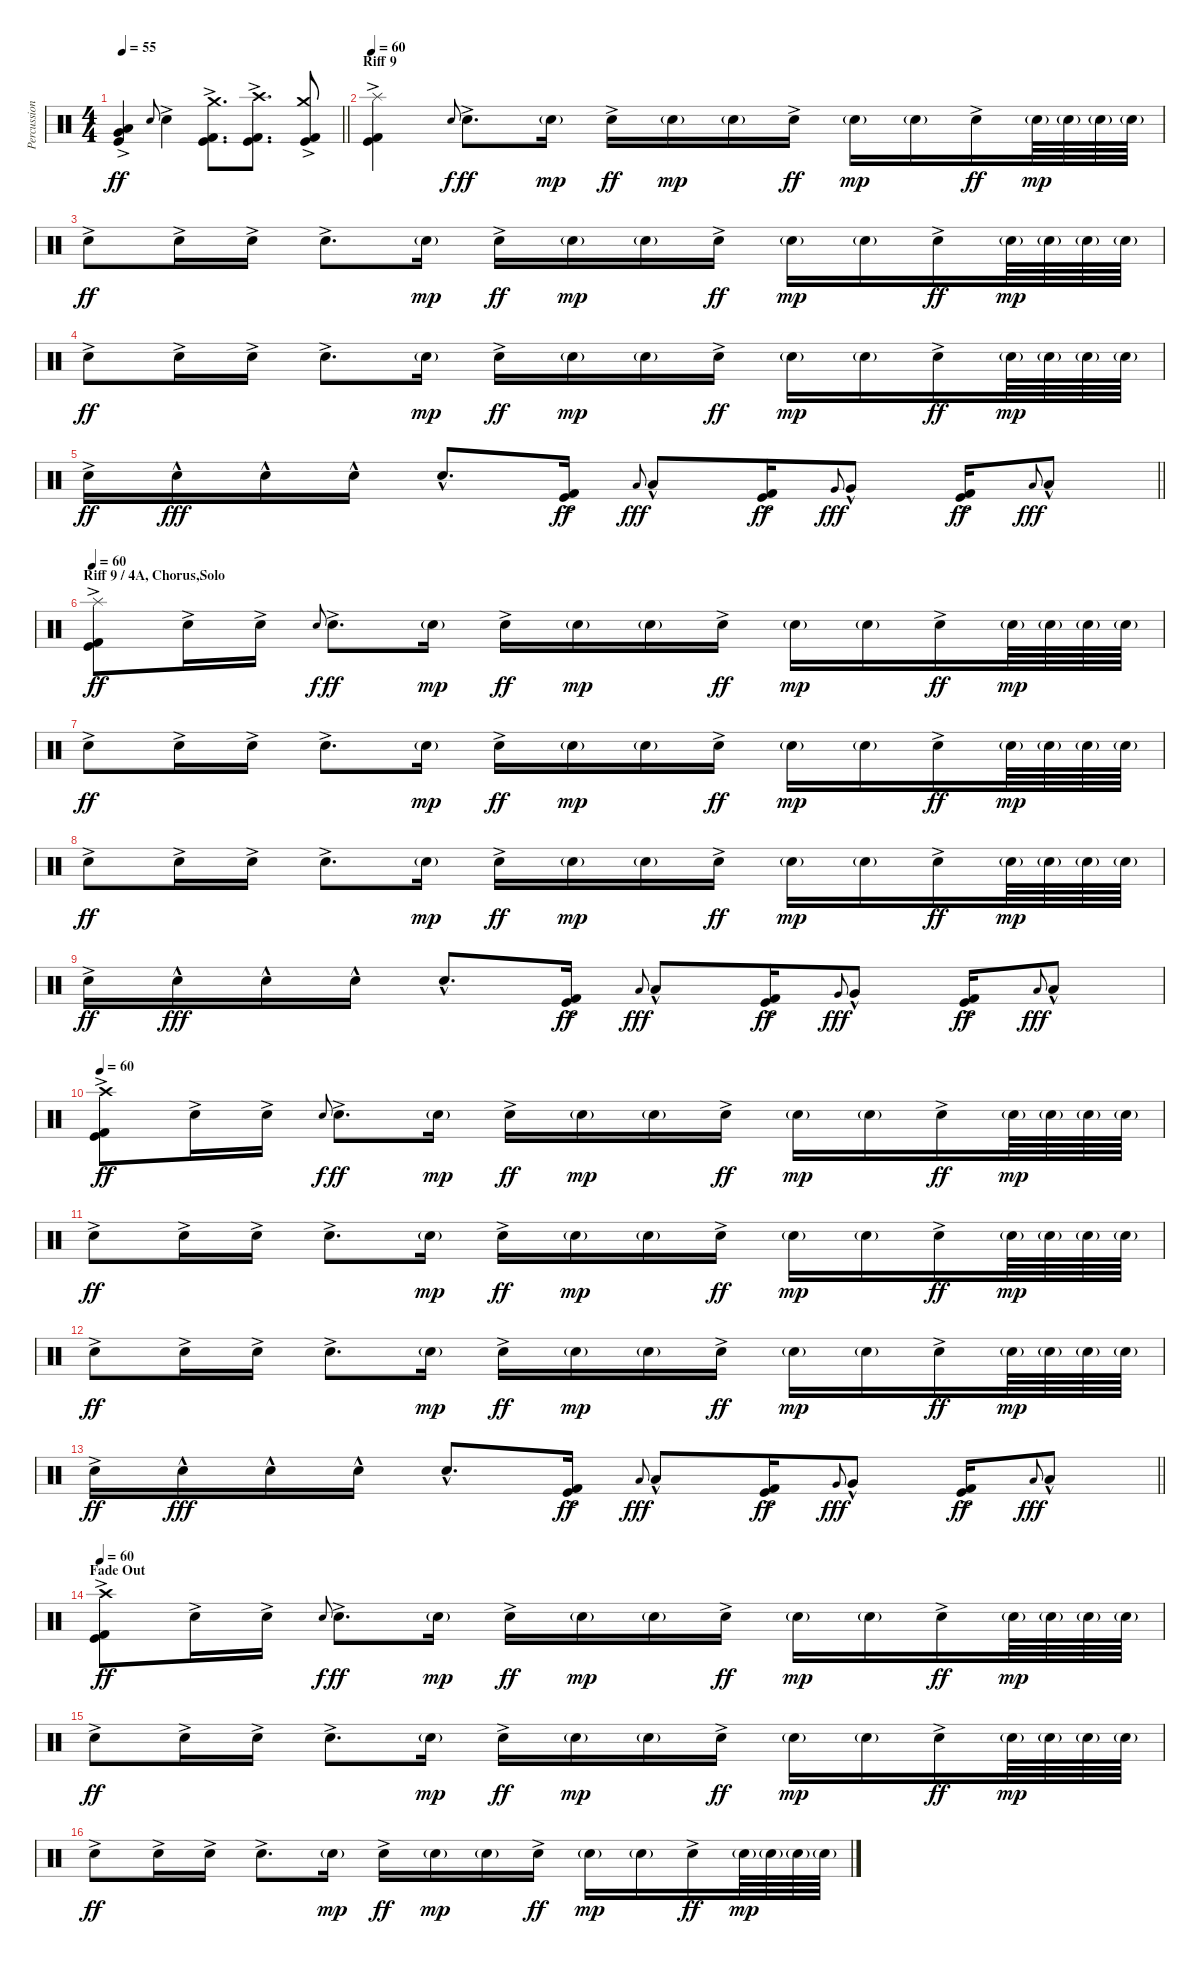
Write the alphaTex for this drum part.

\track ("Percussion" "Percussion") {instrument percussion}
\staff {score}
\articulation defaults
\ts (4 4)
\tempo 55
\clef neutral
\barLineRight lightlight
\ks c
("Low Floor Tom (hit)"{ac} "Very Low Tom (hit)"{ac} "Kick (hit)"{ac}).4{dy ff} "Snare (hit) 2".8{gr onbeat} "Snare (hit) 2"{ac}.4 ("Crash medium (hit)" "Kick (hit)"{ac} "Kick (hit) 2"{ac}).8{d} ("Crash high (hit)" "Kick (hit)"{ac} "Kick (hit) 2"{ac}).8{d} ("Crash medium (hit)" "Kick (hit)"{ac} "Kick (hit) 2"{ac}).8 |
\section ("" "Riff 9")
\tempo 60
("Kick (hit)"{ac} "Kick (hit) 2"{ac} "Splash (hit)").4 "Snare (hit) 2".8{gr onbeat dy f} "Snare (hit) 2"{ac}.8{d dy ff} "Snare (hit) 2"{g}.16{dy mp} "Snare (hit) 2"{ac}.16{dy ff} "Snare (hit) 2"{g}.16{dy mp} "Snare (hit) 2"{g}.16 "Snare (hit) 2"{ac}.16{dy ff} "Snare (hit) 2"{g}.16{dy mp} "Snare (hit) 2"{g}.16 "Snare (hit) 2"{ac}.16{dy ff} "Snare (hit) 2"{g}.64{dy mp} "Snare (hit) 2"{g}.64 "Snare (hit) 2"{g}.64 "Snare (hit) 2"{g}.64 |
"Snare (hit) 2"{ac}.8{dy ff} "Snare (hit) 2"{ac}.16 "Snare (hit) 2"{ac}.16 "Snare (hit) 2"{ac}.8{d} "Snare (hit) 2"{g}.16{dy mp} "Snare (hit) 2"{ac}.16{dy ff} "Snare (hit) 2"{g}.16{dy mp} "Snare (hit) 2"{g}.16 "Snare (hit) 2"{ac}.16{dy ff} "Snare (hit) 2"{g}.16{dy mp} "Snare (hit) 2"{g}.16 "Snare (hit) 2"{ac}.16{dy ff} "Snare (hit) 2"{g}.64{dy mp} "Snare (hit) 2"{g}.64 "Snare (hit) 2"{g}.64 "Snare (hit) 2"{g}.64 |
"Snare (hit) 2"{ac}.8{dy ff} "Snare (hit) 2"{ac}.16 "Snare (hit) 2"{ac}.16 "Snare (hit) 2"{ac}.8{d} "Snare (hit) 2"{g}.16{dy mp} "Snare (hit) 2"{ac}.16{dy ff} "Snare (hit) 2"{g}.16{dy mp} "Snare (hit) 2"{g}.16 "Snare (hit) 2"{ac}.16{dy ff} "Snare (hit) 2"{g}.16{dy mp} "Snare (hit) 2"{g}.16 "Snare (hit) 2"{ac}.16{dy ff} "Snare (hit) 2"{g}.64{dy mp} "Snare (hit) 2"{g}.64 "Snare (hit) 2"{g}.64 "Snare (hit) 2"{g}.64 |
\barLineRight lightlight "Snare (hit) 2"{ac}.16{dy ff} "Snare (hit) 2"{hac}.16{dy fff} "Snare (hit) 2"{hac}.16 "Snare (hit) 2"{hac}.16 "Snare (hit) 2"{hac}.8{d}
("Kick (hit)"{ac} "Kick (hit) 2"{ac}).16{dy ff} "Low Tom (hit)".8{gr onbeat dy fff} "Low Tom (hit)"{hac}.8 ("Kick (hit)"{ac} "Kick (hit) 2"{ac}).16{dy ff} "Very Low Tom (hit)".8{gr onbeat dy fff} "Very Low Tom (hit)"{hac}.8 ("Kick (hit)"{ac} "Kick (hit) 2"{ac}).16{dy ff} "Low Floor Tom (hit)".8{gr onbeat dy fff} "Low Floor Tom (hit)"{hac}.8 |
\section ("" "Riff 9 / 4A, Chorus,Solo")
\tempo 60
("Kick (hit)"{ac} "Kick (hit) 2"{ac} "Splash (hit)").8{dy ff} "Snare (hit) 2"{ac}.16 "Snare (hit) 2"{ac}.16 "Snare (hit) 2".8{gr onbeat dy f} "Snare (hit) 2"{ac}.8{d dy ff} "Snare (hit) 2"{g}.16{dy mp} "Snare (hit) 2"{ac}.16{dy ff} "Snare (hit) 2"{g}.16{dy mp} "Snare (hit) 2"{g}.16 "Snare (hit) 2"{ac}.16{dy ff} "Snare (hit) 2"{g}.16{dy mp} "Snare (hit) 2"{g}.16 "Snare (hit) 2"{ac}.16{dy ff} "Snare (hit) 2"{g}.64{dy mp} "Snare (hit) 2"{g}.64 "Snare (hit) 2"{g}.64 "Snare (hit) 2"{g}.64 |
"Snare (hit) 2"{ac}.8{dy ff} "Snare (hit) 2"{ac}.16 "Snare (hit) 2"{ac}.16 "Snare (hit) 2"{ac}.8{d} "Snare (hit) 2"{g}.16{dy mp} "Snare (hit) 2"{ac}.16{dy ff} "Snare (hit) 2"{g}.16{dy mp} "Snare (hit) 2"{g}.16 "Snare (hit) 2"{ac}.16{dy ff} "Snare (hit) 2"{g}.16{dy mp} "Snare (hit) 2"{g}.16 "Snare (hit) 2"{ac}.16{dy ff} "Snare (hit) 2"{g}.64{dy mp} "Snare (hit) 2"{g}.64 "Snare (hit) 2"{g}.64 "Snare (hit) 2"{g}.64 |
"Snare (hit) 2"{ac}.8{dy ff} "Snare (hit) 2"{ac}.16 "Snare (hit) 2"{ac}.16 "Snare (hit) 2"{ac}.8{d} "Snare (hit) 2"{g}.16{dy mp} "Snare (hit) 2"{ac}.16{dy ff} "Snare (hit) 2"{g}.16{dy mp} "Snare (hit) 2"{g}.16 "Snare (hit) 2"{ac}.16{dy ff} "Snare (hit) 2"{g}.16{dy mp} "Snare (hit) 2"{g}.16 "Snare (hit) 2"{ac}.16{dy ff} "Snare (hit) 2"{g}.64{dy mp} "Snare (hit) 2"{g}.64 "Snare (hit) 2"{g}.64 "Snare (hit) 2"{g}.64 |
"Snare (hit) 2"{ac}.16{dy ff} "Snare (hit) 2"{hac}.16{dy fff} "Snare (hit) 2"{hac}.16 "Snare (hit) 2"{hac}.16 "Snare (hit) 2"{hac}.8{d} ("Kick (hit)"{ac} "Kick (hit) 2"{ac}).16{dy ff} "Low Tom (hit)".8{gr onbeat dy fff} "Low Tom (hit)"{hac}.8 ("Kick (hit)"{ac} "Kick (hit) 2"{ac}).16{dy ff} "Very Low Tom (hit)".8{gr onbeat dy fff} "Very Low Tom (hit)"{hac}.8 ("Kick (hit)"{ac} "Kick (hit) 2"{ac}).16{dy ff} "Low Floor Tom (hit)".8{gr onbeat dy fff} "Low Floor Tom (hit)"{hac}.8 |
\tempo 60
("Kick (hit)"{ac} "Kick (hit) 2"{ac} "Crash high (hit)").8{dy ff} "Snare (hit) 2"{ac}.16 "Snare (hit) 2"{ac}.16 "Snare (hit) 2".8{gr onbeat dy f} "Snare (hit) 2"{ac}.8{d dy ff} "Snare (hit) 2"{g}.16{dy mp} "Snare (hit) 2"{ac}.16{dy ff} "Snare (hit) 2"{g}.16{dy mp} "Snare (hit) 2"{g}.16 "Snare (hit) 2"{ac}.16{dy ff} "Snare (hit) 2"{g}.16{dy mp} "Snare (hit) 2"{g}.16 "Snare (hit) 2"{ac}.16{dy ff} "Snare (hit) 2"{g}.64{dy mp} "Snare (hit) 2"{g}.64 "Snare (hit) 2"{g}.64 "Snare (hit) 2"{g}.64 |
"Snare (hit) 2"{ac}.8{dy ff} "Snare (hit) 2"{ac}.16 "Snare (hit) 2"{ac}.16 "Snare (hit) 2"{ac}.8{d} "Snare (hit) 2"{g}.16{dy mp} "Snare (hit) 2"{ac}.16{dy ff} "Snare (hit) 2"{g}.16{dy mp} "Snare (hit) 2"{g}.16 "Snare (hit) 2"{ac}.16{dy ff} "Snare (hit) 2"{g}.16{dy mp} "Snare (hit) 2"{g}.16 "Snare (hit) 2"{ac}.16{dy ff} "Snare (hit) 2"{g}.64{dy mp} "Snare (hit) 2"{g}.64 "Snare (hit) 2"{g}.64 "Snare (hit) 2"{g}.64 |
"Snare (hit) 2"{ac}.8{dy ff} "Snare (hit) 2"{ac}.16 "Snare (hit) 2"{ac}.16 "Snare (hit) 2"{ac}.8{d} "Snare (hit) 2"{g}.16{dy mp} "Snare (hit) 2"{ac}.16{dy ff} "Snare (hit) 2"{g}.16{dy mp} "Snare (hit) 2"{g}.16 "Snare (hit) 2"{ac}.16{dy ff} "Snare (hit) 2"{g}.16{dy mp} "Snare (hit) 2"{g}.16 "Snare (hit) 2"{ac}.16{dy ff} "Snare (hit) 2"{g}.64{dy mp} "Snare (hit) 2"{g}.64 "Snare (hit) 2"{g}.64 "Snare (hit) 2"{g}.64 |
\barLineRight lightlight "Snare (hit) 2"{ac}.16{dy ff} "Snare (hit) 2"{hac}.16{dy fff} "Snare (hit) 2"{hac}.16 "Snare (hit) 2"{hac}.16 "Snare (hit) 2"{hac}.8{d}
("Kick (hit)"{ac} "Kick (hit) 2"{ac}).16{dy ff} "Low Tom (hit)".8{gr onbeat dy fff} "Low Tom (hit)"{hac}.8 ("Kick (hit)"{ac} "Kick (hit) 2"{ac}).16{dy ff} "Very Low Tom (hit)".8{gr onbeat dy fff} "Very Low Tom (hit)"{hac}.8 ("Kick (hit)"{ac} "Kick (hit) 2"{ac}).16{dy ff} "Low Floor Tom (hit)".8{gr onbeat dy fff} "Low Floor Tom (hit)"{hac}.8 |
\section ("" "Fade Out")
\tempo 60
("Kick (hit)"{ac} "Kick (hit) 2"{ac} "Crash high (hit)").8{dy ff} "Snare (hit) 2"{ac}.16 "Snare (hit) 2"{ac}.16 "Snare (hit) 2".8{gr onbeat dy f} "Snare (hit) 2"{ac}.8{d dy ff} "Snare (hit) 2"{g}.16{dy mp} "Snare (hit) 2"{ac}.16{dy ff} "Snare (hit) 2"{g}.16{dy mp} "Snare (hit) 2"{g}.16 "Snare (hit) 2"{ac}.16{dy ff} "Snare (hit) 2"{g}.16{dy mp} "Snare (hit) 2"{g}.16 "Snare (hit) 2"{ac}.16{dy ff} "Snare (hit) 2"{g}.64{dy mp} "Snare (hit) 2"{g}.64 "Snare (hit) 2"{g}.64 "Snare (hit) 2"{g}.64 |
"Snare (hit) 2"{ac}.8{dy ff} "Snare (hit) 2"{ac}.16 "Snare (hit) 2"{ac}.16 "Snare (hit) 2"{ac}.8{d} "Snare (hit) 2"{g}.16{dy mp} "Snare (hit) 2"{ac}.16{dy ff} "Snare (hit) 2"{g}.16{dy mp} "Snare (hit) 2"{g}.16 "Snare (hit) 2"{ac}.16{dy ff} "Snare (hit) 2"{g}.16{dy mp} "Snare (hit) 2"{g}.16 "Snare (hit) 2"{ac}.16{dy ff} "Snare (hit) 2"{g}.64{dy mp} "Snare (hit) 2"{g}.64 "Snare (hit) 2"{g}.64 "Snare (hit) 2"{g}.64 |
"Snare (hit) 2"{ac}.8{dy ff} "Snare (hit) 2"{ac}.16 "Snare (hit) 2"{ac}.16 "Snare (hit) 2"{ac}.8{d} "Snare (hit) 2"{g}.16{dy mp} "Snare (hit) 2"{ac}.16{dy ff} "Snare (hit) 2"{g}.16{dy mp} "Snare (hit) 2"{g}.16 "Snare (hit) 2"{ac}.16{dy ff} "Snare (hit) 2"{g}.16{dy mp} "Snare (hit) 2"{g}.16 "Snare (hit) 2"{ac}.16{dy ff} "Snare (hit) 2"{g}.64{dy mp} "Snare (hit) 2"{g}.64 "Snare (hit) 2"{g}.64 "Snare (hit) 2"{g}.64
